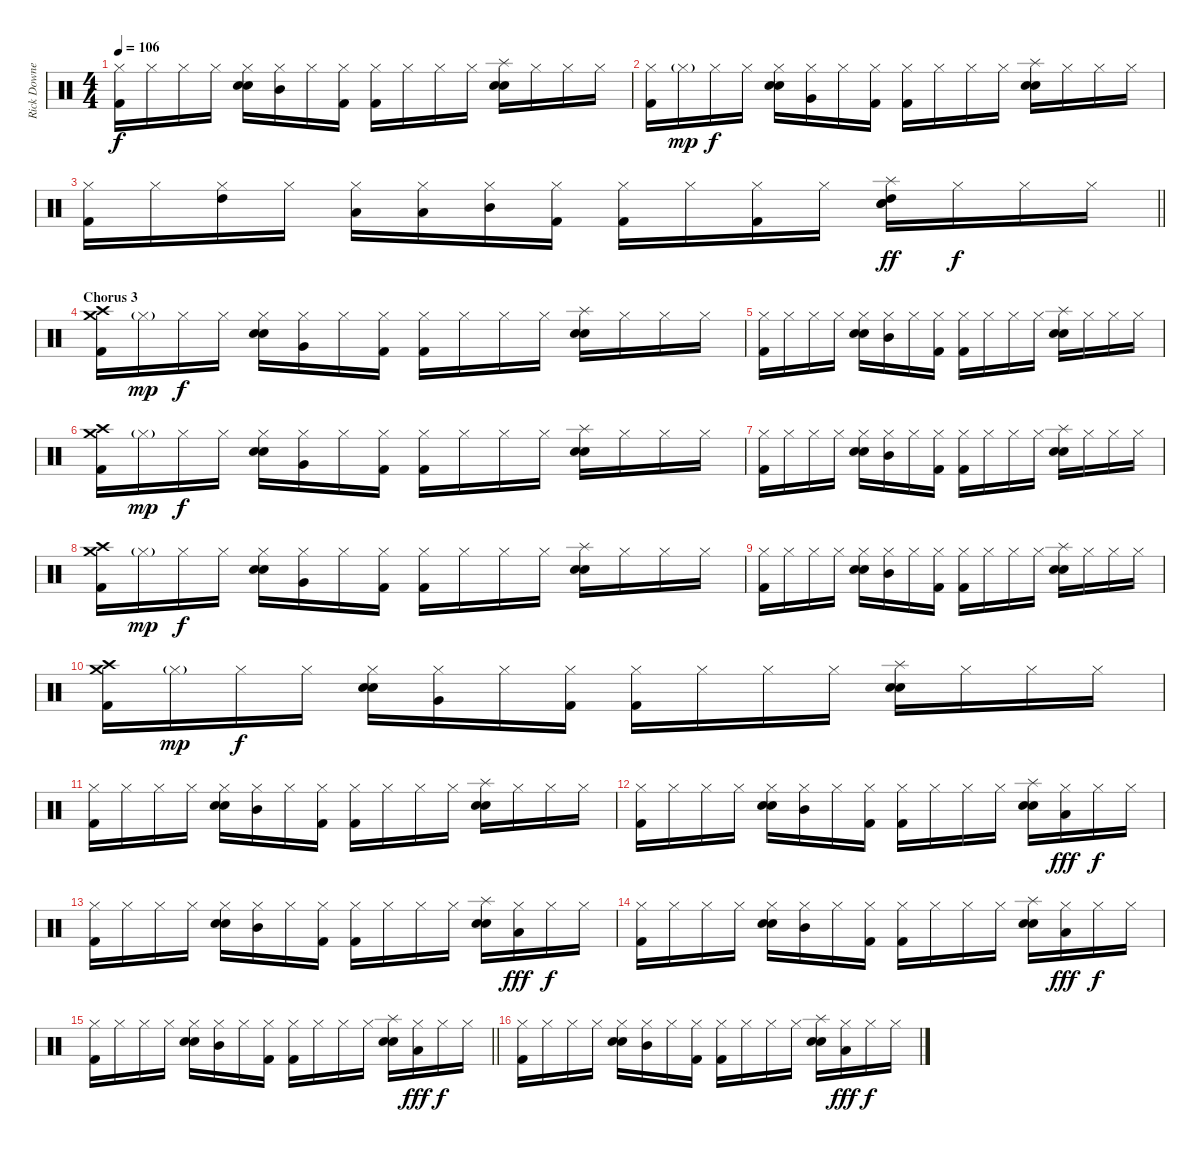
\track ("Rick Downey" "Rick Downe") {instrument percussion}
\staff {score}
\articulation defaults
\ts (4 4)
\tempo 106
\clef neutral
\ks c
("Hi-Hat (closed)" "Kick (hit) 2").16{dy f} "Hi-Hat (closed)".16 "Hi-Hat (closed)".16 "Hi-Hat (closed)".16 ("Hi-Hat (closed)" "Electric Snare (hit)" "Snare (hit) 2").16 ("Mid Tom (hit)" "Hi-Hat (closed)").16 "Hi-Hat (closed)".16 ("Hi-Hat (closed)" "Kick (hit) 2").16 ("Hi-Hat (closed)" "Kick (hit) 2").16 "Hi-Hat (closed)".16 "Hi-Hat (closed)".16 "Hi-Hat (closed)".16 ("Splash (hit)" "Electric Snare (hit)" "Snare (hit) 2").16 "Hi-Hat (closed)".16 "Hi-Hat (closed)".16 "Hi-Hat (closed)".16 |
("Hi-Hat (closed)" "Kick (hit) 2").16 "Hi-Hat (closed)"{g}.16{dy mp} "Hi-Hat (closed)".16{dy f} "Hi-Hat (closed)".16 ("Hi-Hat (closed)" "Electric Snare (hit)" "Snare (hit) 2").16 ("Hi-Hat (closed)" "Very Low Tom (hit)").16 "Hi-Hat (closed)".16 ("Hi-Hat (closed)" "Kick (hit) 2").16 ("Hi-Hat (closed)" "Kick (hit) 2").16 "Hi-Hat (closed)".16 "Hi-Hat (closed)".16 "Hi-Hat (closed)".16 ("Splash (hit)" "Electric Snare (hit)" "Snare (hit) 2").16 "Hi-Hat (closed)".16 "Hi-Hat (closed)".16 "Hi-Hat (closed)".16 |
\barLineRight lightlight
("Hi-Hat (closed)" "Kick (hit) 2").16 "Hi-Hat (closed)".16 ("High Tom (hit)" "Hi-Hat (closed)").16 "Hi-Hat (closed)".16 ("Low Tom (hit)" "Hi-Hat (closed)").16 ("Low Tom (hit)" "Hi-Hat (closed)").16 ("Mid Tom (hit)" "Hi-Hat (closed)").16 ("Hi-Hat (closed)" "Kick (hit) 2").16 ("Hi-Hat (closed)" "Kick (hit) 2").16 "Hi-Hat (closed)".16 ("Hi-Hat (closed)" "Kick (hit) 2").16 "Hi-Hat (closed)".16 ("Splash (hit)" "High Tom (hit)" "Electric Snare (hit)" "Snare (hit) 2").16{dy ff} "Hi-Hat (closed)".16{dy f} "Hi-Hat (closed)".16 "Hi-Hat (closed)".16 |
\section ("" "Chorus 3")
("Crash medium (hit)" "Crash high (hit)" "Kick (hit) 2").16 "Hi-Hat (closed)"{g}.16{dy mp} "Hi-Hat (closed)".16{dy f} "Hi-Hat (closed)".16 ("Hi-Hat (closed)" "Electric Snare (hit)" "Snare (hit) 2").16 ("Hi-Hat (closed)" "Very Low Tom (hit)").16 "Hi-Hat (closed)".16 ("Hi-Hat (closed)" "Kick (hit) 2").16 ("Hi-Hat (closed)" "Kick (hit) 2").16 "Hi-Hat (closed)".16 "Hi-Hat (closed)".16 "Hi-Hat (closed)".16 ("Splash (hit)" "Electric Snare (hit)" "Snare (hit) 2").16 "Hi-Hat (closed)".16 "Hi-Hat (closed)".16 "Hi-Hat (closed)".16 |
("Hi-Hat (closed)" "Kick (hit) 2").16 "Hi-Hat (closed)".16 "Hi-Hat (closed)".16 "Hi-Hat (closed)".16 ("Hi-Hat (closed)" "Electric Snare (hit)" "Snare (hit) 2").16 ("Mid Tom (hit)" "Hi-Hat (closed)").16 "Hi-Hat (closed)".16 ("Hi-Hat (closed)" "Kick (hit) 2").16 ("Hi-Hat (closed)" "Kick (hit) 2").16 "Hi-Hat (closed)".16 "Hi-Hat (closed)".16 "Hi-Hat (closed)".16 ("Splash (hit)" "Electric Snare (hit)" "Snare (hit) 2").16 "Hi-Hat (closed)".16 "Hi-Hat (closed)".16 "Hi-Hat (closed)".16 |
("Crash medium (hit)" "Crash high (hit)" "Kick (hit) 2").16 "Hi-Hat (closed)"{g}.16{dy mp} "Hi-Hat (closed)".16{dy f} "Hi-Hat (closed)".16 ("Hi-Hat (closed)" "Electric Snare (hit)" "Snare (hit) 2").16 ("Hi-Hat (closed)" "Very Low Tom (hit)").16 "Hi-Hat (closed)".16 ("Hi-Hat (closed)" "Kick (hit) 2").16 ("Hi-Hat (closed)" "Kick (hit) 2").16 "Hi-Hat (closed)".16 "Hi-Hat (closed)".16 "Hi-Hat (closed)".16 ("Splash (hit)" "Electric Snare (hit)" "Snare (hit) 2").16 "Hi-Hat (closed)".16 "Hi-Hat (closed)".16 "Hi-Hat (closed)".16 |
("Hi-Hat (closed)" "Kick (hit) 2").16 "Hi-Hat (closed)".16 "Hi-Hat (closed)".16 "Hi-Hat (closed)".16 ("Hi-Hat (closed)" "Electric Snare (hit)" "Snare (hit) 2").16 ("Mid Tom (hit)" "Hi-Hat (closed)").16 "Hi-Hat (closed)".16 ("Hi-Hat (closed)" "Kick (hit) 2").16 ("Hi-Hat (closed)" "Kick (hit) 2").16 "Hi-Hat (closed)".16 "Hi-Hat (closed)".16 "Hi-Hat (closed)".16 ("Splash (hit)" "Electric Snare (hit)" "Snare (hit) 2").16 "Hi-Hat (closed)".16 "Hi-Hat (closed)".16 "Hi-Hat (closed)".16 |
("Crash medium (hit)" "Crash high (hit)" "Kick (hit) 2").16 "Hi-Hat (closed)"{g}.16{dy mp} "Hi-Hat (closed)".16{dy f} "Hi-Hat (closed)".16 ("Hi-Hat (closed)" "Electric Snare (hit)" "Snare (hit) 2").16 ("Hi-Hat (closed)" "Very Low Tom (hit)").16 "Hi-Hat (closed)".16 ("Hi-Hat (closed)" "Kick (hit) 2").16 ("Hi-Hat (closed)" "Kick (hit) 2").16 "Hi-Hat (closed)".16 "Hi-Hat (closed)".16 "Hi-Hat (closed)".16 ("Splash (hit)" "Electric Snare (hit)" "Snare (hit) 2").16 "Hi-Hat (closed)".16 "Hi-Hat (closed)".16 "Hi-Hat (closed)".16 |
("Hi-Hat (closed)" "Kick (hit) 2").16 "Hi-Hat (closed)".16 "Hi-Hat (closed)".16 "Hi-Hat (closed)".16 ("Hi-Hat (closed)" "Electric Snare (hit)" "Snare (hit) 2").16 ("Mid Tom (hit)" "Hi-Hat (closed)").16 "Hi-Hat (closed)".16 ("Hi-Hat (closed)" "Kick (hit) 2").16 ("Hi-Hat (closed)" "Kick (hit) 2").16 "Hi-Hat (closed)".16 "Hi-Hat (closed)".16 "Hi-Hat (closed)".16 ("Splash (hit)" "Electric Snare (hit)" "Snare (hit) 2").16 "Hi-Hat (closed)".16 "Hi-Hat (closed)".16 "Hi-Hat (closed)".16 |
("Crash medium (hit)" "Crash high (hit)" "Kick (hit) 2").16 "Hi-Hat (closed)"{g}.16{dy mp} "Hi-Hat (closed)".16{dy f} "Hi-Hat (closed)".16 ("Hi-Hat (closed)" "Electric Snare (hit)" "Snare (hit) 2").16 ("Hi-Hat (closed)" "Very Low Tom (hit)").16 "Hi-Hat (closed)".16 ("Hi-Hat (closed)" "Kick (hit) 2").16 ("Hi-Hat (closed)" "Kick (hit) 2").16 "Hi-Hat (closed)".16 "Hi-Hat (closed)".16 "Hi-Hat (closed)".16 ("Splash (hit)" "Electric Snare (hit)" "Snare (hit) 2").16 "Hi-Hat (closed)".16 "Hi-Hat (closed)".16 "Hi-Hat (closed)".16 |
("Hi-Hat (closed)" "Kick (hit) 2").16 "Hi-Hat (closed)".16 "Hi-Hat (closed)".16 "Hi-Hat (closed)".16 ("Hi-Hat (closed)" "Electric Snare (hit)" "Snare (hit) 2").16 ("Mid Tom (hit)" "Hi-Hat (closed)").16 "Hi-Hat (closed)".16 ("Hi-Hat (closed)" "Kick (hit) 2").16 ("Hi-Hat (closed)" "Kick (hit) 2").16 "Hi-Hat (closed)".16 "Hi-Hat (closed)".16 "Hi-Hat (closed)".16 ("Splash (hit)" "Electric Snare (hit)" "Snare (hit) 2").16 "Hi-Hat (closed)".16 "Hi-Hat (closed)".16 "Hi-Hat (closed)".16 |
("Hi-Hat (closed)" "Kick (hit) 2").16 "Hi-Hat (closed)".16 "Hi-Hat (closed)".16 "Hi-Hat (closed)".16 ("Hi-Hat (closed)" "Electric Snare (hit)" "Snare (hit) 2").16 ("Mid Tom (hit)" "Hi-Hat (closed)").16 "Hi-Hat (closed)".16 ("Hi-Hat (closed)" "Kick (hit) 2").16 ("Hi-Hat (closed)" "Kick (hit) 2").16 "Hi-Hat (closed)".16 "Hi-Hat (closed)".16 "Hi-Hat (closed)".16 ("Splash (hit)" "Electric Snare (hit)" "Snare (hit) 2").16 ("Low Tom (hit)" "Hi-Hat (closed)").16{dy fff} "Hi-Hat (closed)".16{dy f} "Hi-Hat (closed)".16 |
("Hi-Hat (closed)" "Kick (hit) 2").16 "Hi-Hat (closed)".16 "Hi-Hat (closed)".16 "Hi-Hat (closed)".16 ("Hi-Hat (closed)" "Electric Snare (hit)" "Snare (hit) 2").16 ("Mid Tom (hit)" "Hi-Hat (closed)").16 "Hi-Hat (closed)".16 ("Hi-Hat (closed)" "Kick (hit) 2").16 ("Hi-Hat (closed)" "Kick (hit) 2").16 "Hi-Hat (closed)".16 "Hi-Hat (closed)".16 "Hi-Hat (closed)".16 ("Splash (hit)" "Electric Snare (hit)" "Snare (hit) 2").16 ("Low Tom (hit)" "Hi-Hat (closed)").16{dy fff} "Hi-Hat (closed)".16{dy f} "Hi-Hat (closed)".16 |
("Hi-Hat (closed)" "Kick (hit) 2").16 "Hi-Hat (closed)".16 "Hi-Hat (closed)".16 "Hi-Hat (closed)".16 ("Hi-Hat (closed)" "Electric Snare (hit)" "Snare (hit) 2").16 ("Mid Tom (hit)" "Hi-Hat (closed)").16 "Hi-Hat (closed)".16 ("Hi-Hat (closed)" "Kick (hit) 2").16 ("Hi-Hat (closed)" "Kick (hit) 2").16 "Hi-Hat (closed)".16 "Hi-Hat (closed)".16 "Hi-Hat (closed)".16 ("Splash (hit)" "Electric Snare (hit)" "Snare (hit) 2").16 ("Low Tom (hit)" "Hi-Hat (closed)").16{dy fff} "Hi-Hat (closed)".16{dy f} "Hi-Hat (closed)".16 |
\barLineRight lightlight
("Hi-Hat (closed)" "Kick (hit) 2").16 "Hi-Hat (closed)".16 "Hi-Hat (closed)".16 "Hi-Hat (closed)".16 ("Hi-Hat (closed)" "Electric Snare (hit)" "Snare (hit) 2").16 ("Mid Tom (hit)" "Hi-Hat (closed)").16 "Hi-Hat (closed)".16 ("Hi-Hat (closed)" "Kick (hit) 2").16 ("Hi-Hat (closed)" "Kick (hit) 2").16 "Hi-Hat (closed)".16 "Hi-Hat (closed)".16 "Hi-Hat (closed)".16 ("Splash (hit)" "Electric Snare (hit)" "Snare (hit) 2").16 ("Low Tom (hit)" "Hi-Hat (closed)").16{dy fff} "Hi-Hat (closed)".16{dy f} "Hi-Hat (closed)".16 |
("Hi-Hat (closed)" "Kick (hit) 2").16 "Hi-Hat (closed)".16 "Hi-Hat (closed)".16 "Hi-Hat (closed)".16 ("Hi-Hat (closed)" "Electric Snare (hit)" "Snare (hit) 2").16 ("Mid Tom (hit)" "Hi-Hat (closed)").16 "Hi-Hat (closed)".16 ("Hi-Hat (closed)" "Kick (hit) 2").16 ("Hi-Hat (closed)" "Kick (hit) 2").16 "Hi-Hat (closed)".16 "Hi-Hat (closed)".16 "Hi-Hat (closed)".16 ("Splash (hit)" "Electric Snare (hit)" "Snare (hit) 2").16 ("Low Tom (hit)" "Hi-Hat (closed)").16{dy fff} "Hi-Hat (closed)".16{dy f} "Hi-Hat (closed)".16
